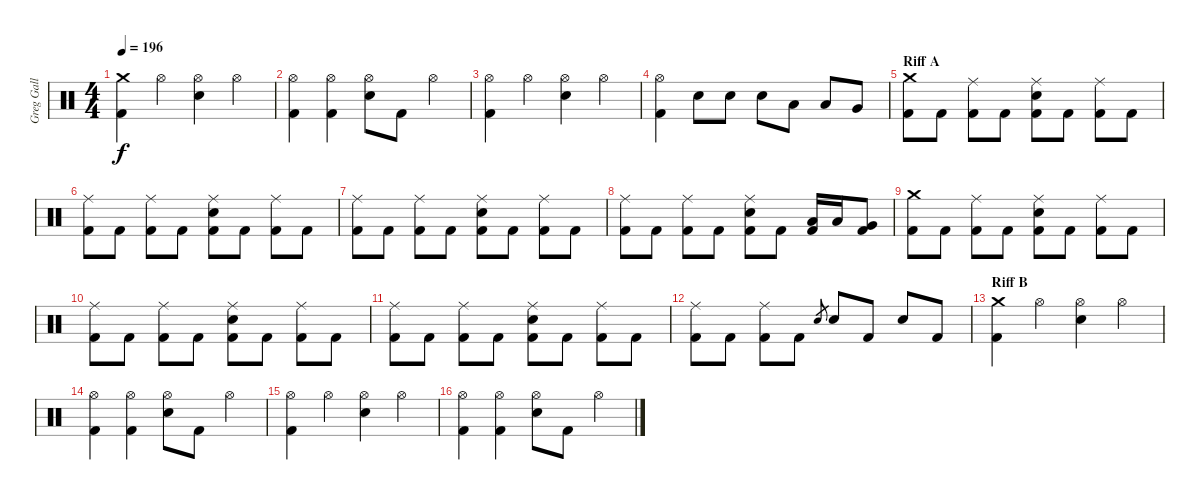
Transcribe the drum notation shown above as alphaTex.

\track ("Greg Gall" "Greg Gall") {instrument percussion}
\staff {score}
\articulation defaults
\ts (4 4)
\tempo 196
\clef neutral
\ks c
("Crash medium (hit)" "Kick (hit) 2").4{dy f} "Hi-Hat (open)".4 ("Hi-Hat (open)" "Electric Snare (hit)").4 "Hi-Hat (open)".4 |
("Hi-Hat (open)" "Kick (hit) 2").4 ("Hi-Hat (open)" "Kick (hit) 2").4 ("Hi-Hat (open)" "Electric Snare (hit)").8 "Kick (hit) 2".8 "Hi-Hat (open)".4 |
("Hi-Hat (open)" "Kick (hit) 2").4 "Hi-Hat (open)".4 ("Hi-Hat (open)" "Electric Snare (hit)").4 "Hi-Hat (open)".4 |
("Hi-Hat (open)" "Kick (hit) 2").4 "Electric Snare (hit)".8 "Electric Snare (hit)".8 "Electric Snare (hit)".8 "Low Tom (hit)".8 "Low Tom (hit)".8 "Very Low Tom (hit)".8 |
\section ("" "Riff A")
("Crash medium (hit)" "Kick (hit) 2").8 "Kick (hit) 2".8 ("Ride (middle)" "Kick (hit) 2").8 "Kick (hit) 2".8 ("Ride (middle)" "Electric Snare (hit)" "Kick (hit) 2").8 "Kick (hit) 2".8 ("Ride (middle)" "Kick (hit) 2").8 "Kick (hit) 2".8 |
("Ride (middle)" "Kick (hit) 2").8 "Kick (hit) 2".8 ("Ride (middle)" "Kick (hit) 2").8 "Kick (hit) 2".8 ("Ride (middle)" "Electric Snare (hit)" "Kick (hit) 2").8 "Kick (hit) 2".8 ("Ride (middle)" "Kick (hit) 2").8 "Kick (hit) 2".8 |
("Ride (middle)" "Kick (hit) 2").8 "Kick (hit) 2".8 ("Ride (middle)" "Kick (hit) 2").8 "Kick (hit) 2".8 ("Ride (middle)" "Electric Snare (hit)" "Kick (hit) 2").8 "Kick (hit) 2".8 ("Ride (middle)" "Kick (hit) 2").8 "Kick (hit) 2".8 |
("Ride (middle)" "Kick (hit) 2").8 "Kick (hit) 2".8 ("Ride (middle)" "Kick (hit) 2").8 "Kick (hit) 2".8 ("Ride (middle)" "Electric Snare (hit)" "Kick (hit) 2").8 "Kick (hit) 2".8 ("Low Tom (hit)" "Kick (hit) 2").16 "Low Tom (hit)".16 ("Very Low Tom (hit)" "Kick (hit) 2").8 |
("Crash medium (hit)" "Kick (hit) 2").8 "Kick (hit) 2".8 ("Ride (middle)" "Kick (hit) 2").8 "Kick (hit) 2".8 ("Ride (middle)" "Electric Snare (hit)" "Kick (hit) 2").8 "Kick (hit) 2".8 ("Ride (middle)" "Kick (hit) 2").8 "Kick (hit) 2".8 |
("Ride (middle)" "Kick (hit) 2").8 "Kick (hit) 2".8 ("Ride (middle)" "Kick (hit) 2").8 "Kick (hit) 2".8 ("Ride (middle)" "Electric Snare (hit)" "Kick (hit) 2").8 "Kick (hit) 2".8 ("Ride (middle)" "Kick (hit) 2").8 "Kick (hit) 2".8 |
("Ride (middle)" "Kick (hit) 2").8 "Kick (hit) 2".8 ("Ride (middle)" "Kick (hit) 2").8 "Kick (hit) 2".8 ("Ride (middle)" "Electric Snare (hit)" "Kick (hit) 2").8 "Kick (hit) 2".8 ("Ride (middle)" "Kick (hit) 2").8 "Kick (hit) 2".8 |
("Ride (middle)" "Kick (hit) 2").8 "Kick (hit) 2".8 ("Ride (middle)" "Kick (hit) 2").8 "Kick (hit) 2".8 "Electric Snare (hit)".8{gr} "Electric Snare (hit)".8 "Kick (hit) 2".8 "Electric Snare (hit)".8 "Kick (hit) 2".8 |
\section ("" "Riff B")
("Crash medium (hit)" "Kick (hit) 2").4 "Hi-Hat (open)".4 ("Hi-Hat (open)" "Electric Snare (hit)").4 "Hi-Hat (open)".4 |
("Hi-Hat (open)" "Kick (hit) 2").4 ("Hi-Hat (open)" "Kick (hit) 2").4 ("Hi-Hat (open)" "Electric Snare (hit)").8 "Kick (hit) 2".8 "Hi-Hat (open)".4 |
("Hi-Hat (open)" "Kick (hit) 2").4 "Hi-Hat (open)".4 ("Hi-Hat (open)" "Electric Snare (hit)").4 "Hi-Hat (open)".4 |
("Hi-Hat (open)" "Kick (hit) 2").4 ("Hi-Hat (open)" "Kick (hit) 2").4 ("Hi-Hat (open)" "Electric Snare (hit)").8 "Kick (hit) 2".8 "Hi-Hat (open)".4
